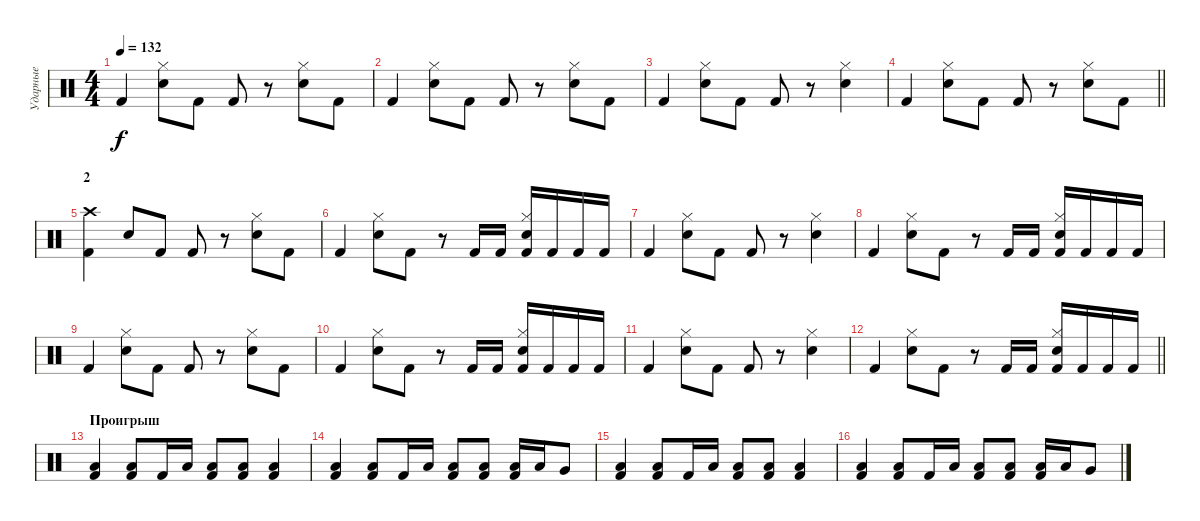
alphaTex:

\track ("Ударные" "Ударные") {instrument percussion}
\staff {score}
\articulation defaults
\ts (4 4)
\tempo 132
\clef neutral
\ks c "Kick (hit) 2".4{dy f}
("Hi-Hat (closed)" "Snare (hit) 2").8 "Kick (hit) 2".8 "Kick (hit) 2".8 r.8 ("Hi-Hat (closed)" "Snare (hit) 2").8 "Kick (hit) 2".8 |
"Kick (hit) 2".4 ("Hi-Hat (closed)" "Snare (hit) 2").8 "Kick (hit) 2".8 "Kick (hit) 2".8 r.8 ("Hi-Hat (closed)" "Snare (hit) 2").8 "Kick (hit) 2".8 |
"Kick (hit) 2".4 ("Hi-Hat (closed)" "Snare (hit) 2").8 "Kick (hit) 2".8 "Kick (hit) 2".8 r.8 ("Hi-Hat (closed)" "Snare (hit) 2").4 |
\barLineRight lightlight "Kick (hit) 2".4
("Hi-Hat (closed)" "Snare (hit) 2").8 "Kick (hit) 2".8 "Kick (hit) 2".8 r.8 ("Hi-Hat (closed)" "Snare (hit) 2").8 "Kick (hit) 2".8 |
\section ("" "2")
("Crash high (hit)" "Kick (hit) 2").4 "Snare (hit) 2".8 "Kick (hit) 2".8 "Kick (hit) 2".8 r.8 ("Hi-Hat (closed)" "Snare (hit) 2").8 "Kick (hit) 2".8 |
"Kick (hit) 2".4 ("Hi-Hat (closed)" "Snare (hit) 2").8 "Kick (hit) 2".8 r.8 "Kick (hit) 2".16 "Kick (hit) 2".16 ("Hi-Hat (closed)" "Snare (hit) 2" "Kick (hit) 2").16 "Kick (hit) 2".16 "Kick (hit) 2".16 "Kick (hit) 2".16 |
"Kick (hit) 2".4 ("Hi-Hat (closed)" "Snare (hit) 2").8 "Kick (hit) 2".8 "Kick (hit) 2".8 r.8 ("Hi-Hat (closed)" "Snare (hit) 2").4 |
"Kick (hit) 2".4 ("Hi-Hat (closed)" "Snare (hit) 2").8 "Kick (hit) 2".8 r.8 "Kick (hit) 2".16 "Kick (hit) 2".16 ("Hi-Hat (closed)" "Snare (hit) 2" "Kick (hit) 2").16 "Kick (hit) 2".16 "Kick (hit) 2".16 "Kick (hit) 2".16 |
"Kick (hit) 2".4 ("Hi-Hat (closed)" "Snare (hit) 2").8 "Kick (hit) 2".8 "Kick (hit) 2".8 r.8 ("Hi-Hat (closed)" "Snare (hit) 2").8 "Kick (hit) 2".8 |
"Kick (hit) 2".4 ("Hi-Hat (closed)" "Snare (hit) 2").8 "Kick (hit) 2".8 r.8 "Kick (hit) 2".16 "Kick (hit) 2".16 ("Hi-Hat (closed)" "Snare (hit) 2" "Kick (hit) 2").16 "Kick (hit) 2".16 "Kick (hit) 2".16 "Kick (hit) 2".16 |
"Kick (hit) 2".4 ("Hi-Hat (closed)" "Snare (hit) 2").8 "Kick (hit) 2".8 "Kick (hit) 2".8 r.8 ("Hi-Hat (closed)" "Snare (hit) 2").4 |
\barLineRight lightlight "Kick (hit) 2".4
("Hi-Hat (closed)" "Snare (hit) 2").8 "Kick (hit) 2".8 r.8 "Kick (hit) 2".16 "Kick (hit) 2".16 ("Hi-Hat (closed)" "Snare (hit) 2" "Kick (hit) 2").16 "Kick (hit) 2".16 "Kick (hit) 2".16 "Kick (hit) 2".16 |
\section ("" "Проигрыш")
("Low Tom (hit)" "Kick (hit) 2").4 ("Low Tom (hit)" "Kick (hit) 2").8 "Kick (hit) 2".16 "Low Floor Tom (hit)".16 ("Low Tom (hit)" "Kick (hit) 2").8 ("Low Tom (hit)" "Kick (hit) 2").8 ("Low Tom (hit)" "Kick (hit) 2").4 |
("Low Tom (hit)" "Kick (hit) 2").4 ("Low Tom (hit)" "Kick (hit) 2").8 "Kick (hit) 2".16 "Low Floor Tom (hit)".16 ("Low Tom (hit)" "Kick (hit) 2").8 ("Low Tom (hit)" "Kick (hit) 2").8 ("Low Tom (hit)" "Kick (hit) 2").16 "Low Tom (hit)".16 "Very Low Tom (hit)".8 |
("Low Tom (hit)" "Kick (hit) 2").4 ("Low Tom (hit)" "Kick (hit) 2").8 "Kick (hit) 2".16 "Low Floor Tom (hit)".16 ("Low Tom (hit)" "Kick (hit) 2").8 ("Low Tom (hit)" "Kick (hit) 2").8 ("Low Tom (hit)" "Kick (hit) 2").4 |
("Low Tom (hit)" "Kick (hit) 2").4 ("Low Tom (hit)" "Kick (hit) 2").8 "Kick (hit) 2".16 "Low Floor Tom (hit)".16 ("Low Tom (hit)" "Kick (hit) 2").8 ("Low Tom (hit)" "Kick (hit) 2").8 ("Low Tom (hit)" "Kick (hit) 2").16 "Low Tom (hit)".16 "Very Low Tom (hit)".8
